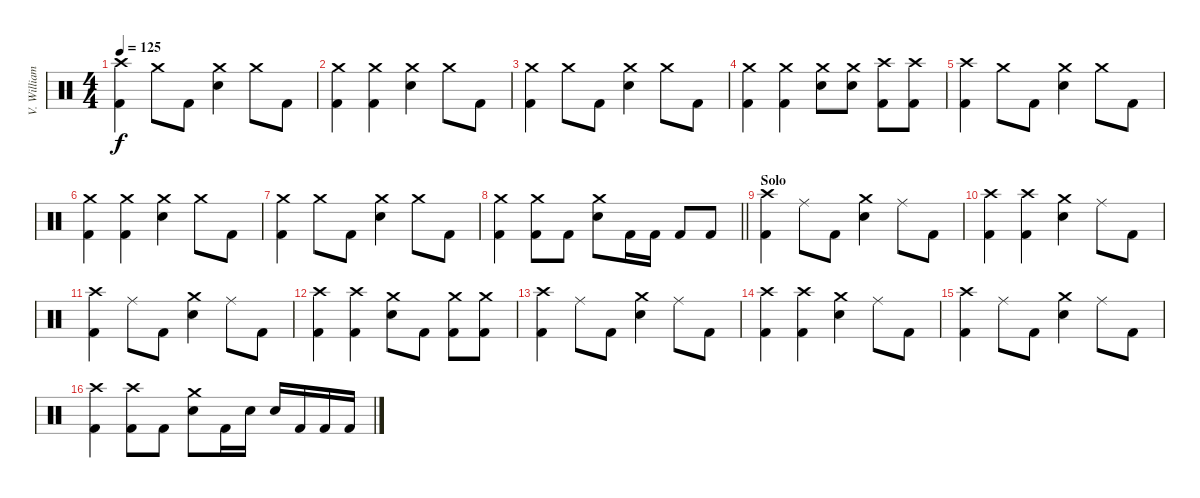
\track ("V. Williams (Drums)" "V. William") {instrument percussion}
\staff {score}
\articulation defaults
\ts (4 4)
\tempo 125
\clef neutral
\ks c
("Crash high (hit)" "Kick (hit) 2").4{dy f} "Crash medium (hit)".8 "Kick (hit) 2".8 ("Crash medium (hit)" "Electric Snare (hit)").4 "Crash medium (hit)".8 "Kick (hit) 2".8 |
("Crash medium (hit)" "Kick (hit) 2").4 ("Crash medium (hit)" "Kick (hit) 2").4 ("Crash medium (hit)" "Electric Snare (hit)").4 "Crash medium (hit)".8 "Kick (hit) 2".8 |
("Crash medium (hit)" "Kick (hit) 2").4 "Crash medium (hit)".8 "Kick (hit) 2".8 ("Crash medium (hit)" "Electric Snare (hit)").4 "Crash medium (hit)".8 "Kick (hit) 2".8 |
("Crash medium (hit)" "Kick (hit) 2").4 ("Crash medium (hit)" "Kick (hit) 2").4 ("Crash medium (hit)" "Electric Snare (hit)").8 ("Crash medium (hit)" "Electric Snare (hit)").8 ("Crash high (hit)" "Kick (hit) 2").8 ("Crash high (hit)" "Kick (hit) 2").8 |
("Crash high (hit)" "Kick (hit) 2").4 "Crash medium (hit)".8 "Kick (hit) 2".8 ("Crash medium (hit)" "Electric Snare (hit)").4 "Crash medium (hit)".8 "Kick (hit) 2".8 |
("Crash medium (hit)" "Kick (hit) 2").4 ("Crash medium (hit)" "Kick (hit) 2").4 ("Crash medium (hit)" "Electric Snare (hit)").4 "Crash medium (hit)".8 "Kick (hit) 2".8 |
("Crash medium (hit)" "Kick (hit) 2").4 "Crash medium (hit)".8 "Kick (hit) 2".8 ("Crash medium (hit)" "Electric Snare (hit)").4 "Crash medium (hit)".8 "Kick (hit) 2".8 |
\barLineRight lightlight
("Crash medium (hit)" "Kick (hit) 2").4 ("Crash medium (hit)" "Kick (hit) 2").8 "Kick (hit) 2".8 ("Crash medium (hit)" "Electric Snare (hit)").8 "Kick (hit) 2".16 "Kick (hit) 2".16 "Kick (hit) 2".8 "Kick (hit) 2".8 |
\section ("" "Solo")
("Crash high (hit)" "Kick (hit) 2").4 "Ride (middle)".8 "Kick (hit) 2".8 ("Crash medium (hit)" "Electric Snare (hit)").4 "Ride (middle)".8 "Kick (hit) 2".8 |
("Crash high (hit)" "Kick (hit) 2").4 ("Crash high (hit)" "Kick (hit) 2").4 ("Crash medium (hit)" "Electric Snare (hit)").4 "Ride (middle)".8 "Kick (hit) 2".8 |
("Crash high (hit)" "Kick (hit) 2").4 "Ride (middle)".8 "Kick (hit) 2".8 ("Crash medium (hit)" "Electric Snare (hit)").4 "Ride (middle)".8 "Kick (hit) 2".8 |
("Crash high (hit)" "Kick (hit) 2").4 ("Crash high (hit)" "Kick (hit) 2").4 ("Crash medium (hit)" "Electric Snare (hit)").8 "Kick (hit) 2".8 ("Crash medium (hit)" "Kick (hit) 2").8 ("Crash medium (hit)" "Kick (hit) 2").8 |
("Crash high (hit)" "Kick (hit) 2").4 "Ride (middle)".8 "Kick (hit) 2".8 ("Crash medium (hit)" "Electric Snare (hit)").4 "Ride (middle)".8 "Kick (hit) 2".8 |
("Crash high (hit)" "Kick (hit) 2").4 ("Crash high (hit)" "Kick (hit) 2").4 ("Crash medium (hit)" "Electric Snare (hit)").4 "Ride (middle)".8 "Kick (hit) 2".8 |
("Crash high (hit)" "Kick (hit) 2").4 "Ride (middle)".8 "Kick (hit) 2".8 ("Crash medium (hit)" "Electric Snare (hit)").4 "Ride (middle)".8 "Kick (hit) 2".8 |
("Crash high (hit)" "Kick (hit) 2").4 ("Crash high (hit)" "Kick (hit) 2").8 "Kick (hit) 2".8 ("Crash medium (hit)" "Electric Snare (hit)").8 "Kick (hit) 2".16 "Electric Snare (hit)".16 "Electric Snare (hit)".16 "Kick (hit) 2".16 "Kick (hit) 2".16 "Kick (hit) 2".16
